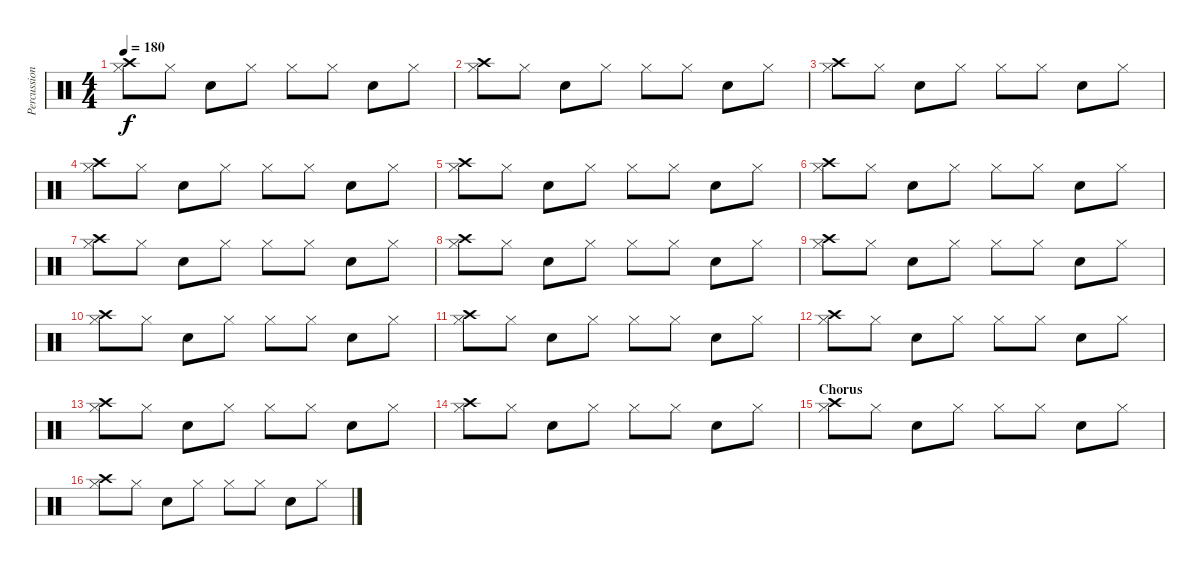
\track ("Percussion" "Percussion") {instrument percussion}
\staff {score}
\articulation defaults
\ts (4 4)
\tempo 180
\clef neutral
\ks c
("Crash high (hit)" "Hi-Hat (closed)").8{dy f} "Hi-Hat (closed)".8 "Electric Snare (hit)".8 "Hi-Hat (closed)".8 "Hi-Hat (closed)".8 "Hi-Hat (closed)".8 "Electric Snare (hit)".8 "Hi-Hat (closed)".8 |
("Crash high (hit)" "Hi-Hat (closed)").8 "Hi-Hat (closed)".8 "Electric Snare (hit)".8 "Hi-Hat (closed)".8 "Hi-Hat (closed)".8 "Hi-Hat (closed)".8 "Electric Snare (hit)".8 "Hi-Hat (closed)".8 |
("Crash high (hit)" "Hi-Hat (closed)").8 "Hi-Hat (closed)".8 "Electric Snare (hit)".8 "Hi-Hat (closed)".8 "Hi-Hat (closed)".8 "Hi-Hat (closed)".8 "Electric Snare (hit)".8 "Hi-Hat (closed)".8 |
("Crash high (hit)" "Hi-Hat (closed)").8 "Hi-Hat (closed)".8 "Electric Snare (hit)".8 "Hi-Hat (closed)".8 "Hi-Hat (closed)".8 "Hi-Hat (closed)".8 "Electric Snare (hit)".8 "Hi-Hat (closed)".8 |
("Crash high (hit)" "Hi-Hat (closed)").8 "Hi-Hat (closed)".8 "Electric Snare (hit)".8 "Hi-Hat (closed)".8 "Hi-Hat (closed)".8 "Hi-Hat (closed)".8 "Electric Snare (hit)".8 "Hi-Hat (closed)".8 |
("Crash high (hit)" "Hi-Hat (closed)").8 "Hi-Hat (closed)".8 "Electric Snare (hit)".8 "Hi-Hat (closed)".8 "Hi-Hat (closed)".8 "Hi-Hat (closed)".8 "Electric Snare (hit)".8 "Hi-Hat (closed)".8 |
("Crash high (hit)" "Hi-Hat (closed)").8 "Hi-Hat (closed)".8 "Electric Snare (hit)".8 "Hi-Hat (closed)".8 "Hi-Hat (closed)".8 "Hi-Hat (closed)".8 "Electric Snare (hit)".8 "Hi-Hat (closed)".8 |
("Crash high (hit)" "Hi-Hat (closed)").8 "Hi-Hat (closed)".8 "Electric Snare (hit)".8 "Hi-Hat (closed)".8 "Hi-Hat (closed)".8 "Hi-Hat (closed)".8 "Electric Snare (hit)".8 "Hi-Hat (closed)".8 |
("Crash high (hit)" "Hi-Hat (closed)").8 "Hi-Hat (closed)".8 "Electric Snare (hit)".8 "Hi-Hat (closed)".8 "Hi-Hat (closed)".8 "Hi-Hat (closed)".8 "Electric Snare (hit)".8 "Hi-Hat (closed)".8 |
("Crash high (hit)" "Hi-Hat (closed)").8 "Hi-Hat (closed)".8 "Electric Snare (hit)".8 "Hi-Hat (closed)".8 "Hi-Hat (closed)".8 "Hi-Hat (closed)".8 "Electric Snare (hit)".8 "Hi-Hat (closed)".8 |
("Crash high (hit)" "Hi-Hat (closed)").8 "Hi-Hat (closed)".8 "Electric Snare (hit)".8 "Hi-Hat (closed)".8 "Hi-Hat (closed)".8 "Hi-Hat (closed)".8 "Electric Snare (hit)".8 "Hi-Hat (closed)".8 |
("Crash high (hit)" "Hi-Hat (closed)").8 "Hi-Hat (closed)".8 "Electric Snare (hit)".8 "Hi-Hat (closed)".8 "Hi-Hat (closed)".8 "Hi-Hat (closed)".8 "Electric Snare (hit)".8 "Hi-Hat (closed)".8 |
("Crash high (hit)" "Hi-Hat (closed)").8 "Hi-Hat (closed)".8 "Electric Snare (hit)".8 "Hi-Hat (closed)".8 "Hi-Hat (closed)".8 "Hi-Hat (closed)".8 "Electric Snare (hit)".8 "Hi-Hat (closed)".8 |
("Crash high (hit)" "Hi-Hat (closed)").8 "Hi-Hat (closed)".8 "Electric Snare (hit)".8 "Hi-Hat (closed)".8 "Hi-Hat (closed)".8 "Hi-Hat (closed)".8 "Electric Snare (hit)".8 "Hi-Hat (closed)".8 |
\section ("" "Chorus")
("Crash high (hit)" "Hi-Hat (closed)").8 "Hi-Hat (closed)".8 "Electric Snare (hit)".8 "Hi-Hat (closed)".8 "Hi-Hat (closed)".8 "Hi-Hat (closed)".8 "Electric Snare (hit)".8 "Hi-Hat (closed)".8 |
("Crash high (hit)" "Hi-Hat (closed)").8 "Hi-Hat (closed)".8 "Electric Snare (hit)".8 "Hi-Hat (closed)".8 "Hi-Hat (closed)".8 "Hi-Hat (closed)".8 "Electric Snare (hit)".8 "Hi-Hat (closed)".8
